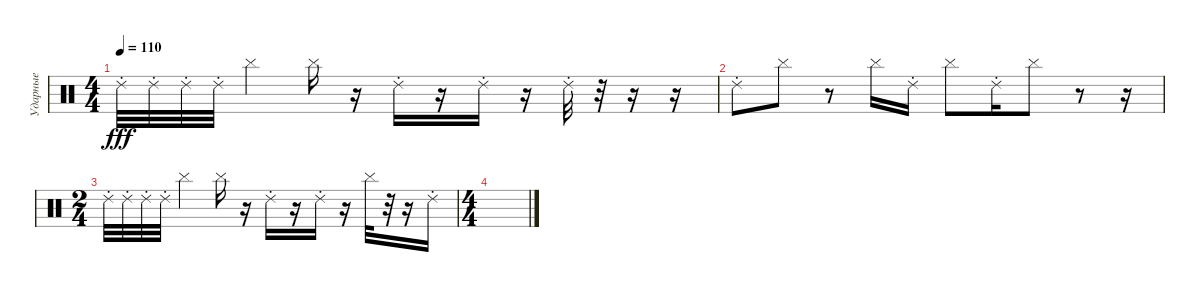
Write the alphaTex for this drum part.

\track ("Ударные" "Ударные") {instrument percussion}
\staff {score}
\articulation defaults
\ts (4 4)
\tempo 110
\clef neutral
\ks c "Ride (choke) 2".32{dy fff} "Ride (choke) 2".32 "Ride (choke) 2".32 "Ride (choke) 2".32 "Cymbal (hit)".4 "Cymbal (hit)".16
r.16 "Ride (choke) 2".16 r.16 "Ride (choke) 2".16 r.16 "Ride (choke) 2".32 r.32 r.16 r.16 |
"Ride (choke) 2".8 "Cymbal (hit)".8 r.8 "Cymbal (hit)".16 "Ride (choke) 2".16 "Cymbal (hit)".8 "Ride (choke) 2".16 "Cymbal (hit)".8 r.8 r.16 |
\ts (2 4)
"Ride (choke) 2".32 "Ride (choke) 2".32 "Ride (choke) 2".32 "Ride (choke) 2".32 "Cymbal (hit)".4 "Cymbal (hit)".16 r.16 "Ride (choke) 2".16 r.16 "Ride (choke) 2".16 r.16 "Cymbal (hit)".32 r.32 r.16 "Ride (choke) 2".16 |
\ts (4 4)
